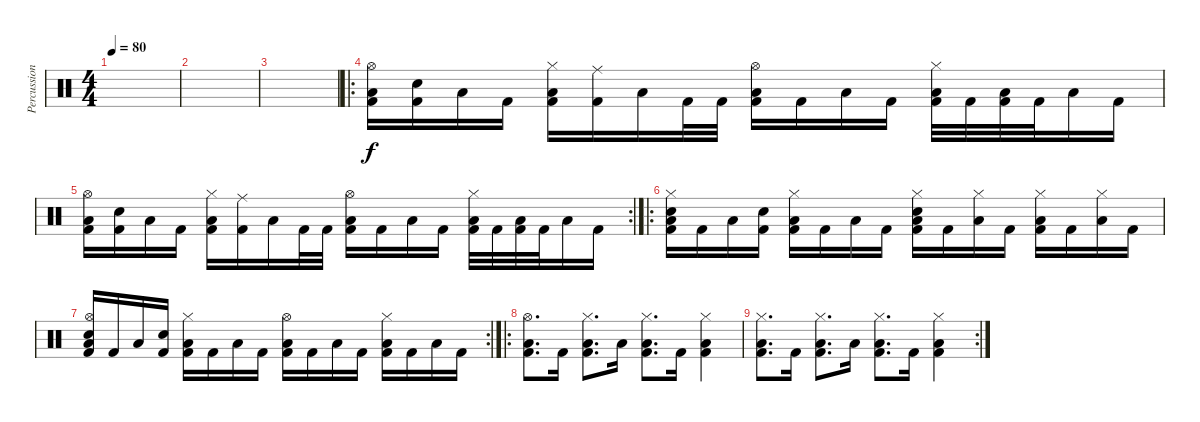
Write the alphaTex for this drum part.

\track ("Percussion" "Percussion") {instrument percussion}
\staff {score}
\articulation defaults
\ts (4 4)
\tempo 80
\clef neutral
\ks c
|
|
|
\ro
("Kick (hit) 2" "Low Floor Tom (hit)" "Hi-Hat (open)").16 ("Kick (hit) 2" "Snare (hit) 2").16 "Low Floor Tom (hit)".16 "Kick (hit) 2".16 ("Kick (hit) 2" "Low Floor Tom (hit)" "Hi-Hat (closed)").16 ("Kick (hit) 2" "Ride (middle)").16 "Low Floor Tom (hit)".16 "Kick (hit) 2".32 "Kick (hit) 2".32 ("Kick (hit) 2" "Low Floor Tom (hit)" "Hi-Hat (open)").16 "Kick (hit) 2".16 "Low Floor Tom (hit)".16 "Kick (hit) 2".16 ("Kick (hit) 2" "Low Floor Tom (hit)" "Hi-Hat (closed)").32 "Kick (hit) 2".32 ("Kick (hit) 2" "Low Floor Tom (hit)").32 "Kick (hit) 2".32 "Low Floor Tom (hit)".16 "Kick (hit) 2".16 |
\rc 2
("Kick (hit) 2" "Low Floor Tom (hit)" "Hi-Hat (open)").16 ("Kick (hit) 2" "Snare (hit) 2").16 "Low Floor Tom (hit)".16 "Kick (hit) 2".16 ("Kick (hit) 2" "Low Floor Tom (hit)" "Hi-Hat (closed)").16 ("Kick (hit) 2" "Ride (middle)").16 "Low Floor Tom (hit)".16 "Kick (hit) 2".32 "Kick (hit) 2".32 ("Kick (hit) 2" "Low Floor Tom (hit)" "Hi-Hat (open)").16 "Kick (hit) 2".16 "Low Floor Tom (hit)".16 "Kick (hit) 2".16 ("Kick (hit) 2" "Low Floor Tom (hit)" "Hi-Hat (closed)").32 "Kick (hit) 2".32 ("Kick (hit) 2" "Low Floor Tom (hit)").32 "Kick (hit) 2".32 "Low Floor Tom (hit)".16 "Kick (hit) 2".16 |
\ro
("Kick (hit) 2" "Low Floor Tom (hit)" "Snare (hit) 2" "Hi-Hat (closed)").16 "Kick (hit) 2".16 "Low Floor Tom (hit)".16 ("Kick (hit) 2" "Snare (hit) 2").16 ("Kick (hit) 2" "Low Floor Tom (hit)" "Hi-Hat (closed)").16 "Kick (hit) 2".16 "Low Floor Tom (hit)".16 "Kick (hit) 2".16 ("Kick (hit) 2" "Low Floor Tom (hit)" "Snare (hit) 2" "Hi-Hat (closed)").16 "Kick (hit) 2".16 ("Low Floor Tom (hit)" "Hi-Hat (closed)").16 "Kick (hit) 2".16 ("Kick (hit) 2" "Low Floor Tom (hit)" "Hi-Hat (closed)").16 "Kick (hit) 2".16 ("Low Floor Tom (hit)" "Hi-Hat (closed)").16 "Kick (hit) 2".16 |
\rc 2
("Kick (hit) 2" "Low Floor Tom (hit)" "Snare (hit) 2" "Hi-Hat (open)").16 "Kick (hit) 2".16 "Low Floor Tom (hit)".16 ("Kick (hit) 2" "Snare (hit) 2").16 ("Kick (hit) 2" "Low Floor Tom (hit)" "Hi-Hat (closed)").16 "Kick (hit) 2".16 "Low Floor Tom (hit)".16 "Kick (hit) 2".16 ("Kick (hit) 2" "Low Floor Tom (hit)" "Hi-Hat (open)").16 "Kick (hit) 2".16 "Low Floor Tom (hit)".16 "Kick (hit) 2".16 ("Kick (hit) 2" "Low Floor Tom (hit)" "Hi-Hat (closed)").16 "Kick (hit) 2".16 "Low Floor Tom (hit)".16 "Kick (hit) 2".16 |
\ro
("Kick (hit) 2" "Low Floor Tom (hit)" "Hi-Hat (open)").8{d} "Kick (hit) 2".16 ("Kick (hit) 2" "Low Floor Tom (hit)" "Hi-Hat (closed)").8{d} "Low Floor Tom (hit)".16 ("Kick (hit) 2" "Low Floor Tom (hit)" "Hi-Hat (closed)").8{d} "Kick (hit) 2".16 ("Kick (hit) 2" "Low Floor Tom (hit)" "Hi-Hat (closed)").4 |
\rc 2
("Kick (hit) 2" "Low Floor Tom (hit)" "Hi-Hat (closed)").8{d} "Kick (hit) 2".16 ("Kick (hit) 2" "Low Floor Tom (hit)" "Hi-Hat (closed)").8{d} "Low Floor Tom (hit)".16 ("Kick (hit) 2" "Low Floor Tom (hit)" "Hi-Hat (closed)").8{d} "Kick (hit) 2".16 ("Kick (hit) 2" "Low Floor Tom (hit)" "Hi-Hat (closed)").4
